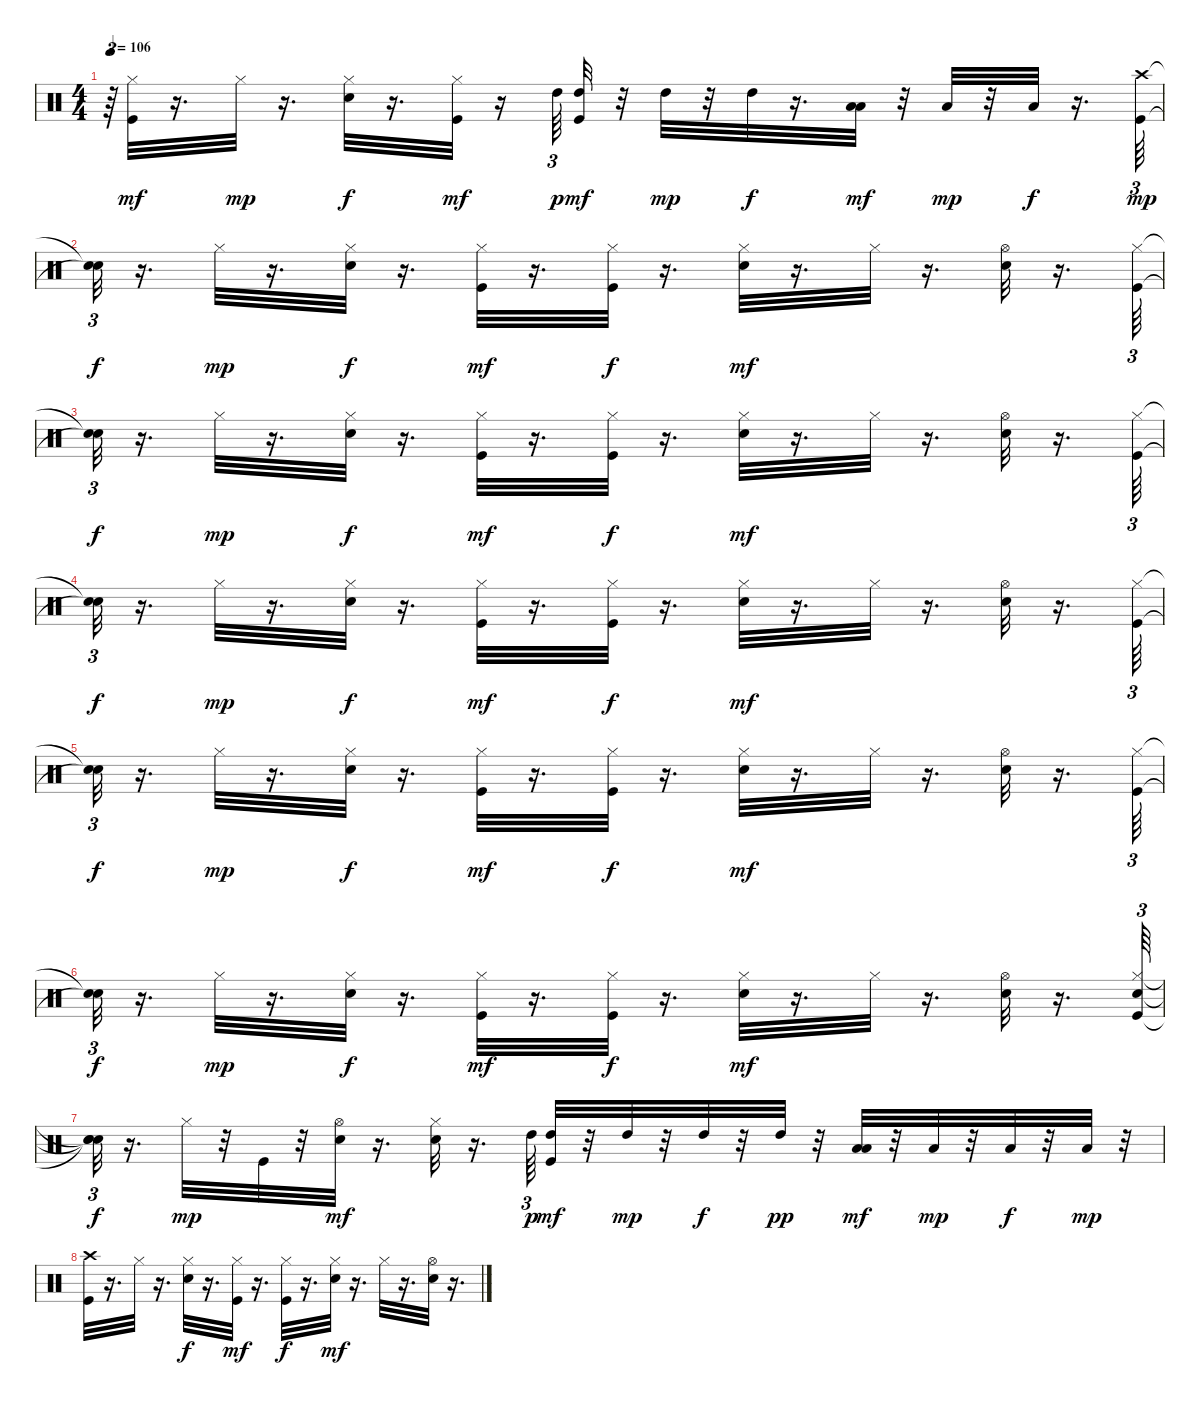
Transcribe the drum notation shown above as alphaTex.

\track "" {instrument percussion}
\staff {score}
\articulation defaults
\ts (4 4)
\tempo 106
\clef neutral
\ks c
r.64{tu (3 2) dy mf} ("Kick (hit)" "Hi-Hat (closed)").32 r.16{d} "Hi-Hat (closed)".32{dy mp} r.16{d} ("Snare (hit) 2" "Hi-Hat (closed)").32{dy f} r.16{d} ("Kick (hit)" "Hi-Hat (closed)").32{dy mf} r.16 "High Tom (hit)".64{tu (3 2) dy p} ("Kick (hit)" "High Tom (hit)").32{dy mf} r.32 "High Tom (hit)".32{dy mp} r.32 "High Tom (hit)".32{dy f} r.16{d} ("Low Tom (hit)" "Low Tom (hit)").32{dy mf} r.32 "Low Tom (hit)".32{dy mp} r.32 "Low Tom (hit)".32{dy f} r.16{d} ("Kick (hit)" "Crash high (hit)").64{tu (3 2) dy mp} |
("Snare (hit)"{t} "Snare (hit)"{t}).32{tu (3 2) dy f} r.16{d} "Hi-Hat (closed)".32{dy mp} r.16{d} ("Snare (hit) 2" "Hi-Hat (closed)").32{dy f} r.16{d} ("Kick (hit)" "Hi-Hat (closed)").32{dy mf} r.16{d} ("Kick (hit)" "Hi-Hat (closed)").32{dy f} r.16{d} ("Snare (hit) 2" "Hi-Hat (closed)").32{dy mf} r.16{d} "Hi-Hat (closed)".32 r.16{d} ("Snare (hit) 2" "Hi-Hat (open)").32 r.16{d} ("Kick (hit)" "Hi-Hat (closed)").64{tu (3 2)} |
("Snare (hit)"{t} "Snare (hit)"{t}).32{tu (3 2) dy f} r.16{d} "Hi-Hat (closed)".32{dy mp} r.16{d} ("Snare (hit) 2" "Hi-Hat (closed)").32{dy f} r.16{d} ("Kick (hit)" "Hi-Hat (closed)").32{dy mf} r.16{d} ("Kick (hit)" "Hi-Hat (closed)").32{dy f} r.16{d} ("Snare (hit) 2" "Hi-Hat (closed)").32{dy mf} r.16{d} "Hi-Hat (closed)".32 r.16{d} ("Snare (hit) 2" "Hi-Hat (open)").32 r.16{d} ("Kick (hit)" "Hi-Hat (closed)").64{tu (3 2)} |
("Snare (hit)"{t} "Snare (hit)"{t}).32{tu (3 2) dy f} r.16{d} "Hi-Hat (closed)".32{dy mp} r.16{d} ("Snare (hit) 2" "Hi-Hat (closed)").32{dy f} r.16{d} ("Kick (hit)" "Hi-Hat (closed)").32{dy mf} r.16{d} ("Kick (hit)" "Hi-Hat (closed)").32{dy f} r.16{d} ("Snare (hit) 2" "Hi-Hat (closed)").32{dy mf} r.16{d} "Hi-Hat (closed)".32 r.16{d} ("Snare (hit) 2" "Hi-Hat (open)").32 r.16{d} ("Kick (hit)" "Hi-Hat (closed)").64{tu (3 2)} |
("Snare (hit)"{t} "Snare (hit)"{t}).32{tu (3 2) dy f} r.16{d} "Hi-Hat (closed)".32{dy mp} r.16{d} ("Snare (hit) 2" "Hi-Hat (closed)").32{dy f} r.16{d} ("Kick (hit)" "Hi-Hat (closed)").32{dy mf} r.16{d} ("Kick (hit)" "Hi-Hat (closed)").32{dy f} r.16{d} ("Snare (hit) 2" "Hi-Hat (closed)").32{dy mf} r.16{d} "Hi-Hat (closed)".32 r.16{d} ("Snare (hit) 2" "Hi-Hat (open)").32 r.16{d} ("Kick (hit)" "Hi-Hat (closed)").64{tu (3 2)} |
("Snare (hit)"{t} "Snare (hit)"{t}).32{tu (3 2) dy f} r.16{d} "Hi-Hat (closed)".32{dy mp} r.16{d} ("Snare (hit) 2" "Hi-Hat (closed)").32{dy f} r.16{d} ("Kick (hit)" "Hi-Hat (closed)").32{dy mf} r.16{d} ("Kick (hit)" "Hi-Hat (closed)").32{dy f} r.16{d} ("Snare (hit) 2" "Hi-Hat (closed)").32{dy mf} r.16{d} "Hi-Hat (closed)".32 r.16{d} ("Snare (hit) 2" "Hi-Hat (open)").32 r.16{d} ("Kick (hit)" "Snare (hit) 2" "Hi-Hat (closed)").64{tu (3 2)} |
("Snare (hit)"{t} "Snare (hit)"{t} "Snare (hit)"{t}).32{tu (3 2) dy f} r.16{d} "Hi-Hat (closed)".32{dy mp} r.32 "Kick (hit)".32 r.32 ("Snare (hit) 2" "Hi-Hat (open)").32{dy mf} r.16{d} ("Snare (hit) 2" "Hi-Hat (closed)").32 r.16{d} "High Tom (hit)".64{tu (3 2) dy p} ("Kick (hit)" "High Tom (hit)").32{dy mf} r.32 "High Tom (hit)".32{dy mp} r.32 "High Tom (hit)".32{dy f} r.32 "High Tom (hit)".32{dy pp} r.32 ("Low Tom (hit)" "Low Tom (hit)").32{dy mf} r.32 "Low Tom (hit)".32{dy mp} r.32 "Low Tom (hit)".32{dy f} r.32 "Low Tom (hit)".32{dy mp} r.32 |
("Kick (hit)" "Crash high (hit)").32 r.16{d} "Hi-Hat (closed)".32 r.16{d} ("Snare (hit) 2" "Hi-Hat (closed)").32{dy f} r.16{d} ("Kick (hit)" "Hi-Hat (closed)").32{dy mf} r.16{d} ("Kick (hit)" "Hi-Hat (closed)").32{dy f} r.16{d} ("Snare (hit) 2" "Hi-Hat (closed)").32{dy mf} r.16{d} "Hi-Hat (closed)".32 r.16{d} ("Snare (hit) 2" "Hi-Hat (open)").32 r.16{d}
